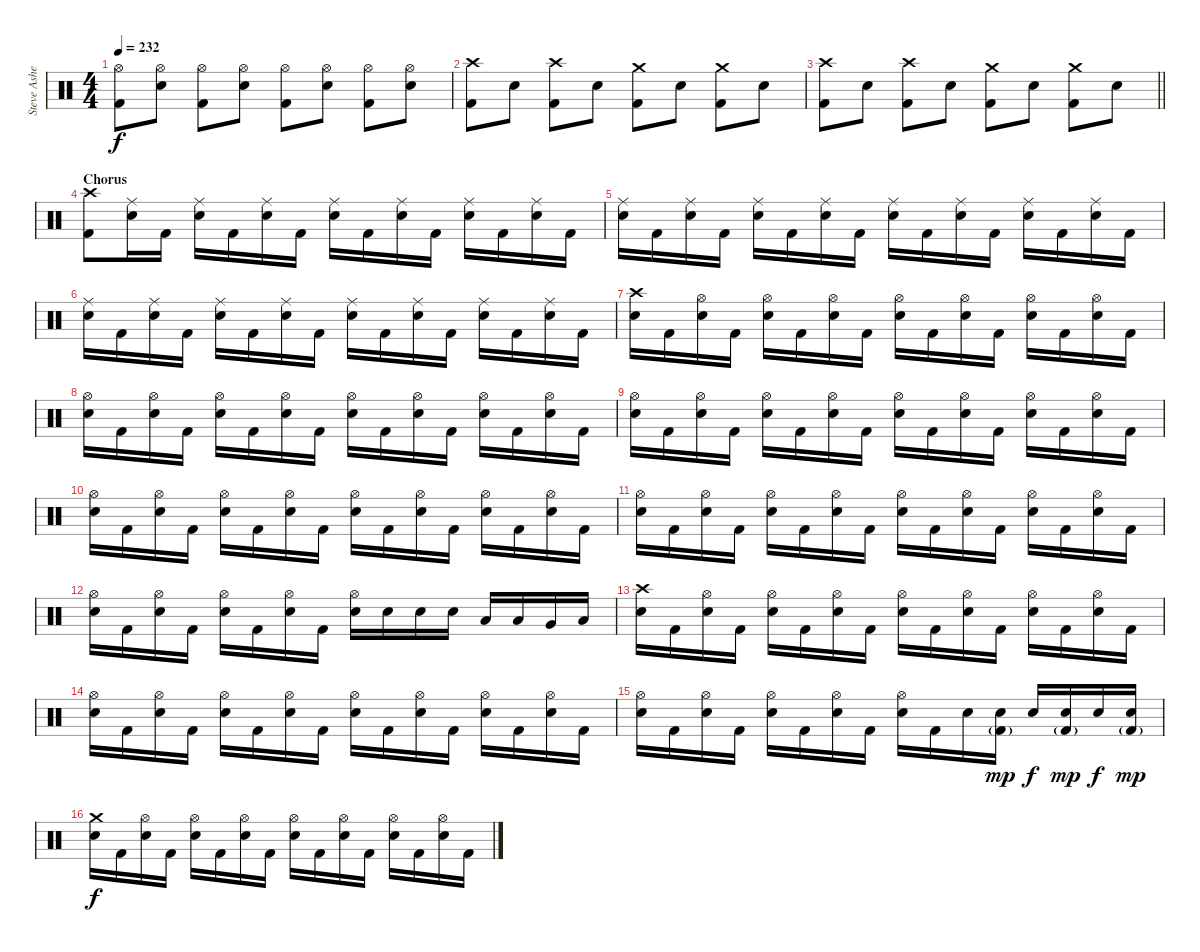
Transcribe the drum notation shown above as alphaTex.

\track ("Steve Asheim" "Steve Ashe") {instrument percussion}
\staff {score}
\articulation defaults
\ts (4 4)
\tempo 232
\clef neutral
\ks c
("Hi-Hat (open)" "Kick (hit) 2").8{dy f} ("Hi-Hat (open)" "Electric Snare (hit)").8 ("Hi-Hat (open)" "Kick (hit) 2").8 ("Hi-Hat (open)" "Electric Snare (hit)").8 ("Hi-Hat (open)" "Kick (hit) 2").8 ("Hi-Hat (open)" "Electric Snare (hit)").8 ("Hi-Hat (open)" "Kick (hit) 2").8 ("Hi-Hat (open)" "Electric Snare (hit)").8 |
("Crash high (hit)" "Kick (hit) 2").8 "Electric Snare (hit)".8 ("Crash high (hit)" "Kick (hit) 2").8 "Electric Snare (hit)".8 ("Crash medium (hit)" "Kick (hit) 2").8 "Electric Snare (hit)".8 ("Crash medium (hit)" "Kick (hit) 2").8 "Electric Snare (hit)".8 |
\barLineRight lightlight
("Crash high (hit)" "Kick (hit) 2").8 "Electric Snare (hit)".8 ("Crash high (hit)" "Kick (hit) 2").8 "Electric Snare (hit)".8 ("Crash medium (hit)" "Kick (hit) 2").8 "Electric Snare (hit)".8 ("Crash medium (hit)" "Kick (hit) 2").8 "Electric Snare (hit)".8 |
\section ("" "Chorus")
("Crash high (hit)" "Kick (hit) 2").8 ("Ride (middle)" "Electric Snare (hit)").16 "Kick (hit) 2".16 ("Ride (middle)" "Electric Snare (hit)").16 "Kick (hit) 2".16 ("Ride (middle)" "Electric Snare (hit)").16 "Kick (hit) 2".16 ("Ride (middle)" "Electric Snare (hit)").16 "Kick (hit) 2".16 ("Ride (middle)" "Electric Snare (hit)").16 "Kick (hit) 2".16 ("Ride (middle)" "Electric Snare (hit)").16 "Kick (hit) 2".16 ("Ride (middle)" "Electric Snare (hit)").16 "Kick (hit) 2".16 |
("Ride (middle)" "Electric Snare (hit)").16 "Kick (hit) 2".16 ("Ride (middle)" "Electric Snare (hit)").16 "Kick (hit) 2".16 ("Ride (middle)" "Electric Snare (hit)").16 "Kick (hit) 2".16 ("Ride (middle)" "Electric Snare (hit)").16 "Kick (hit) 2".16 ("Ride (middle)" "Electric Snare (hit)").16 "Kick (hit) 2".16 ("Ride (middle)" "Electric Snare (hit)").16 "Kick (hit) 2".16 ("Ride (middle)" "Electric Snare (hit)").16 "Kick (hit) 2".16 ("Ride (middle)" "Electric Snare (hit)").16 "Kick (hit) 2".16 |
("Ride (middle)" "Electric Snare (hit)").16 "Kick (hit) 2".16 ("Ride (middle)" "Electric Snare (hit)").16 "Kick (hit) 2".16 ("Ride (middle)" "Electric Snare (hit)").16 "Kick (hit) 2".16 ("Ride (middle)" "Electric Snare (hit)").16 "Kick (hit) 2".16 ("Ride (middle)" "Electric Snare (hit)").16 "Kick (hit) 2".16 ("Ride (middle)" "Electric Snare (hit)").16 "Kick (hit) 2".16 ("Ride (middle)" "Electric Snare (hit)").16 "Kick (hit) 2".16 ("Ride (middle)" "Electric Snare (hit)").16 "Kick (hit) 2".16 |
("Crash high (hit)" "Electric Snare (hit)").16 "Kick (hit) 2".16 ("Hi-Hat (open)" "Electric Snare (hit)").16 "Kick (hit) 2".16 ("Hi-Hat (open)" "Electric Snare (hit)").16 "Kick (hit) 2".16 ("Hi-Hat (open)" "Electric Snare (hit)").16 "Kick (hit) 2".16 ("Hi-Hat (open)" "Electric Snare (hit)").16 "Kick (hit) 2".16 ("Hi-Hat (open)" "Electric Snare (hit)").16 "Kick (hit) 2".16 ("Hi-Hat (open)" "Electric Snare (hit)").16 "Kick (hit) 2".16 ("Hi-Hat (open)" "Electric Snare (hit)").16 "Kick (hit) 2".16 |
("Hi-Hat (open)" "Electric Snare (hit)").16 "Kick (hit) 2".16 ("Hi-Hat (open)" "Electric Snare (hit)").16 "Kick (hit) 2".16 ("Hi-Hat (open)" "Electric Snare (hit)").16 "Kick (hit) 2".16 ("Hi-Hat (open)" "Electric Snare (hit)").16 "Kick (hit) 2".16 ("Hi-Hat (open)" "Electric Snare (hit)").16 "Kick (hit) 2".16 ("Hi-Hat (open)" "Electric Snare (hit)").16 "Kick (hit) 2".16 ("Hi-Hat (open)" "Electric Snare (hit)").16 "Kick (hit) 2".16 ("Hi-Hat (open)" "Electric Snare (hit)").16 "Kick (hit) 2".16 |
("Hi-Hat (open)" "Electric Snare (hit)").16 "Kick (hit) 2".16 ("Hi-Hat (open)" "Electric Snare (hit)").16 "Kick (hit) 2".16 ("Hi-Hat (open)" "Electric Snare (hit)").16 "Kick (hit) 2".16 ("Hi-Hat (open)" "Electric Snare (hit)").16 "Kick (hit) 2".16 ("Hi-Hat (open)" "Electric Snare (hit)").16 "Kick (hit) 2".16 ("Hi-Hat (open)" "Electric Snare (hit)").16 "Kick (hit) 2".16 ("Hi-Hat (open)" "Electric Snare (hit)").16 "Kick (hit) 2".16 ("Hi-Hat (open)" "Electric Snare (hit)").16 "Kick (hit) 2".16 |
("Hi-Hat (open)" "Electric Snare (hit)").16 "Kick (hit) 2".16 ("Hi-Hat (open)" "Electric Snare (hit)").16 "Kick (hit) 2".16 ("Hi-Hat (open)" "Electric Snare (hit)").16 "Kick (hit) 2".16 ("Hi-Hat (open)" "Electric Snare (hit)").16 "Kick (hit) 2".16 ("Hi-Hat (open)" "Electric Snare (hit)").16 "Kick (hit) 2".16 ("Hi-Hat (open)" "Electric Snare (hit)").16 "Kick (hit) 2".16 ("Hi-Hat (open)" "Electric Snare (hit)").16 "Kick (hit) 2".16 ("Hi-Hat (open)" "Electric Snare (hit)").16 "Kick (hit) 2".16 |
("Hi-Hat (open)" "Electric Snare (hit)").16 "Kick (hit) 2".16 ("Hi-Hat (open)" "Electric Snare (hit)").16 "Kick (hit) 2".16 ("Hi-Hat (open)" "Electric Snare (hit)").16 "Kick (hit) 2".16 ("Hi-Hat (open)" "Electric Snare (hit)").16 "Kick (hit) 2".16 ("Hi-Hat (open)" "Electric Snare (hit)").16 "Kick (hit) 2".16 ("Hi-Hat (open)" "Electric Snare (hit)").16 "Kick (hit) 2".16 ("Hi-Hat (open)" "Electric Snare (hit)").16 "Kick (hit) 2".16 ("Hi-Hat (open)" "Electric Snare (hit)").16 "Kick (hit) 2".16 |
("Hi-Hat (open)" "Electric Snare (hit)").16 "Kick (hit) 2".16 ("Hi-Hat (open)" "Electric Snare (hit)").16 "Kick (hit) 2".16 ("Hi-Hat (open)" "Electric Snare (hit)").16 "Kick (hit) 2".16 ("Hi-Hat (open)" "Electric Snare (hit)").16 "Kick (hit) 2".16 ("Hi-Hat (open)" "Electric Snare (hit)").16 "Electric Snare (hit)".16 "Electric Snare (hit)".16 "Electric Snare (hit)".16 "Low Tom (hit)".16 "Low Tom (hit)".16 "Very Low Tom (hit)".16 "Low Floor Tom (hit)".16 |
("Crash high (hit)" "Electric Snare (hit)").16 "Kick (hit) 2".16 ("Hi-Hat (open)" "Electric Snare (hit)").16 "Kick (hit) 2".16 ("Hi-Hat (open)" "Electric Snare (hit)").16 "Kick (hit) 2".16 ("Hi-Hat (open)" "Electric Snare (hit)").16 "Kick (hit) 2".16 ("Hi-Hat (open)" "Electric Snare (hit)").16 "Kick (hit) 2".16 ("Hi-Hat (open)" "Electric Snare (hit)").16 "Kick (hit) 2".16 ("Hi-Hat (open)" "Electric Snare (hit)").16 "Kick (hit) 2".16 ("Hi-Hat (open)" "Electric Snare (hit)").16 "Kick (hit) 2".16 |
("Hi-Hat (open)" "Electric Snare (hit)").16 "Kick (hit) 2".16 ("Hi-Hat (open)" "Electric Snare (hit)").16 "Kick (hit) 2".16 ("Hi-Hat (open)" "Electric Snare (hit)").16 "Kick (hit) 2".16 ("Hi-Hat (open)" "Electric Snare (hit)").16 "Kick (hit) 2".16 ("Hi-Hat (open)" "Electric Snare (hit)").16 "Kick (hit) 2".16 ("Hi-Hat (open)" "Electric Snare (hit)").16 "Kick (hit) 2".16 ("Hi-Hat (open)" "Electric Snare (hit)").16 "Kick (hit) 2".16 ("Hi-Hat (open)" "Electric Snare (hit)").16 "Kick (hit) 2".16 |
("Hi-Hat (open)" "Electric Snare (hit)").16 "Kick (hit) 2".16 ("Hi-Hat (open)" "Electric Snare (hit)").16 "Kick (hit) 2".16 ("Hi-Hat (open)" "Electric Snare (hit)").16 "Kick (hit) 2".16 ("Hi-Hat (open)" "Electric Snare (hit)").16 "Kick (hit) 2".16 ("Hi-Hat (open)" "Electric Snare (hit)").16 "Kick (hit) 2".16 "Electric Snare (hit)".16 ("Electric Snare (hit)" "Kick (hit) 2"{g}).16{dy mp} "Electric Snare (hit)".16{dy f} ("Electric Snare (hit)" "Kick (hit) 2"{g}).16{dy mp} "Electric Snare (hit)".16{dy f} ("Electric Snare (hit)" "Kick (hit) 2"{g}).16{dy mp} |
("Crash medium (hit)" "Electric Snare (hit)").16{dy f} "Kick (hit) 2".16 ("Hi-Hat (open)" "Electric Snare (hit)").16 "Kick (hit) 2".16 ("Hi-Hat (open)" "Electric Snare (hit)").16 "Kick (hit) 2".16 ("Hi-Hat (open)" "Electric Snare (hit)").16 "Kick (hit) 2".16 ("Hi-Hat (open)" "Electric Snare (hit)").16 "Kick (hit) 2".16 ("Hi-Hat (open)" "Electric Snare (hit)").16 "Kick (hit) 2".16 ("Hi-Hat (open)" "Electric Snare (hit)").16 "Kick (hit) 2".16 ("Hi-Hat (open)" "Electric Snare (hit)").16 "Kick (hit) 2".16
